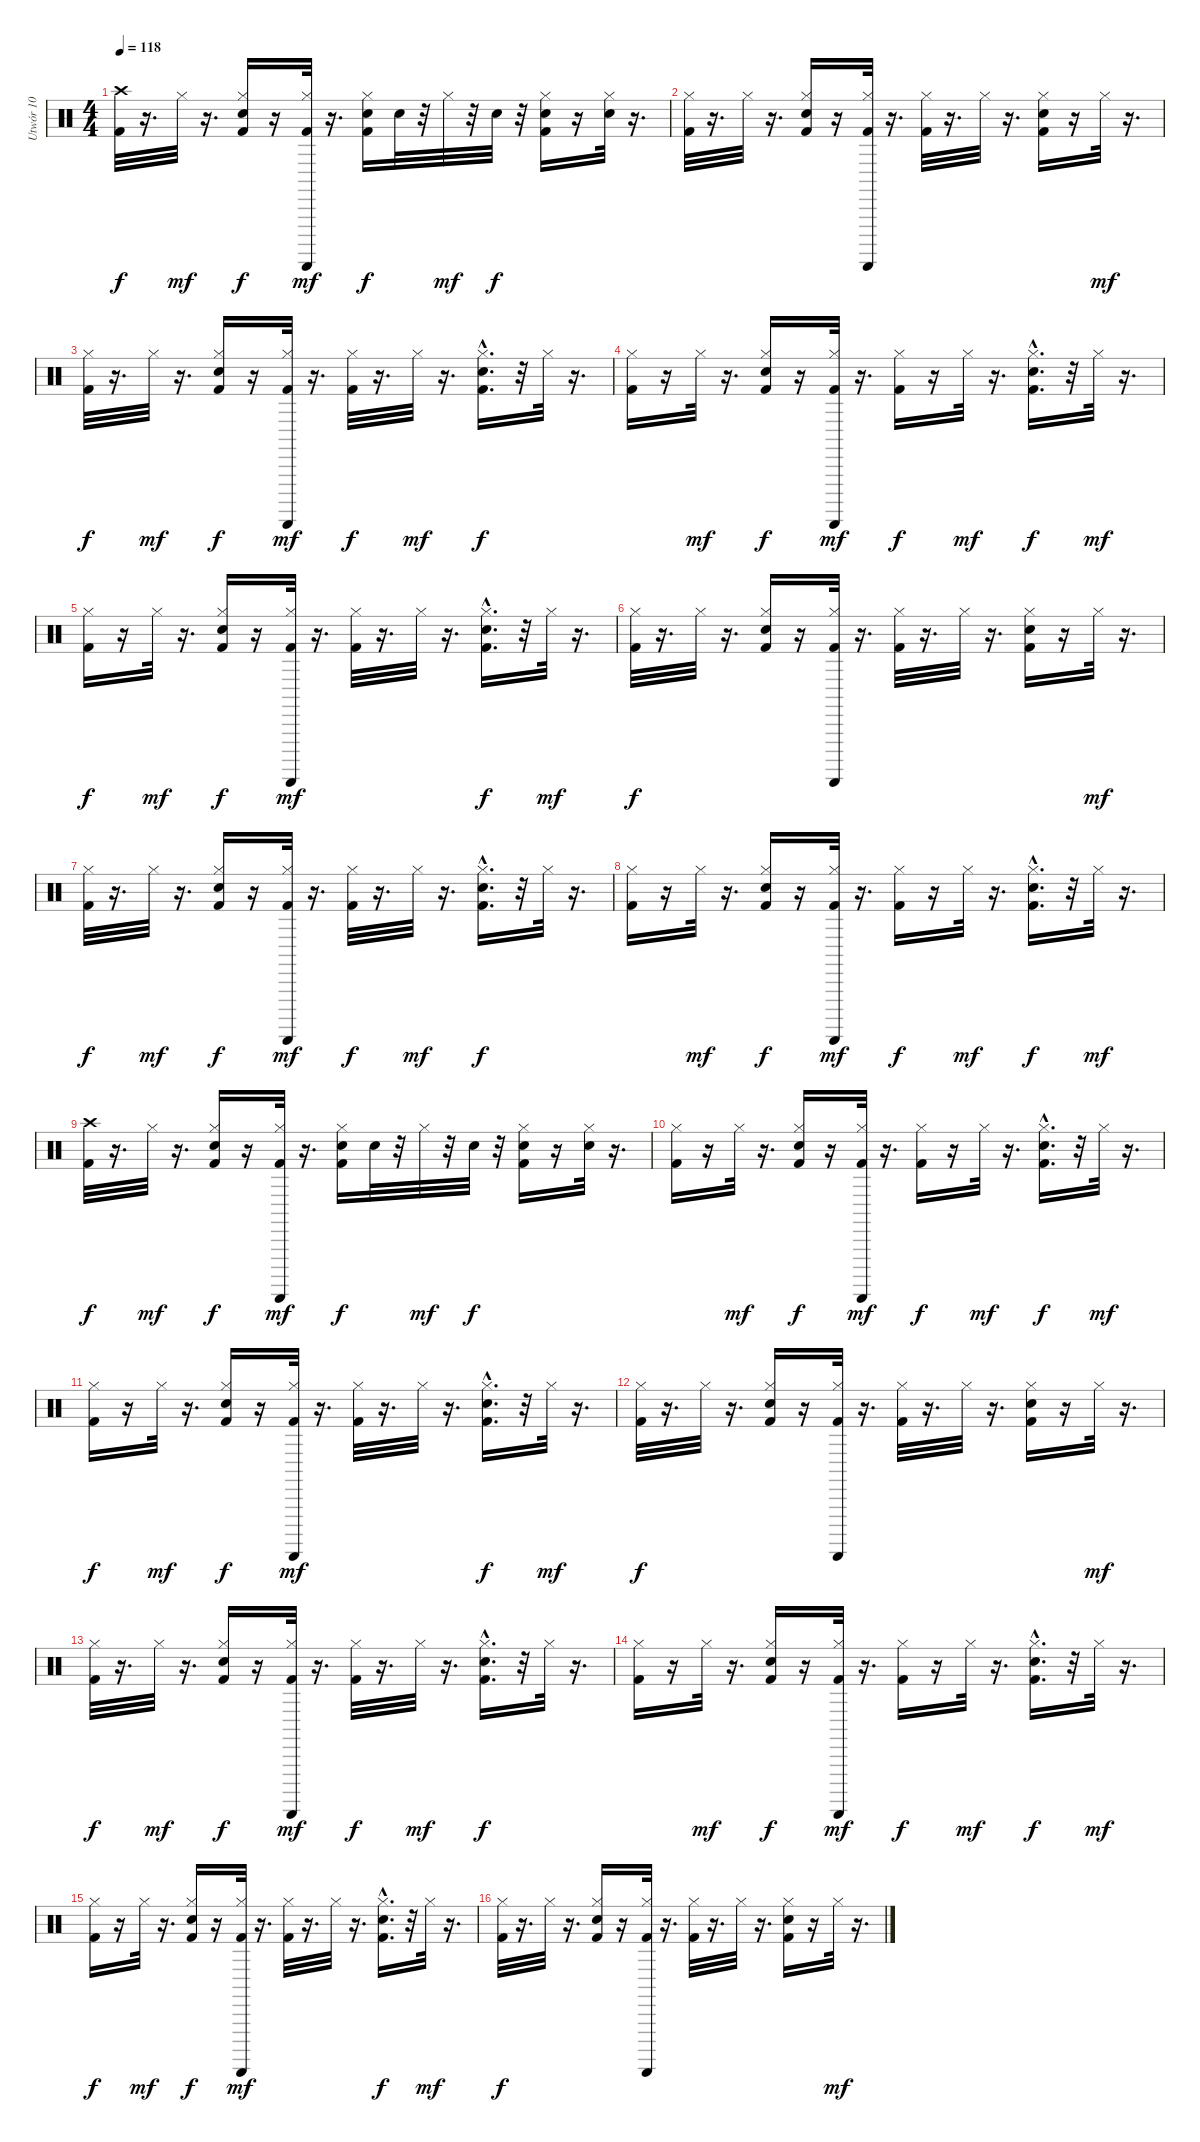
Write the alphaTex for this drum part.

\track ("Utwór 10" "Utwór 10") {instrument percussion}
\staff {score}
\articulation defaults
\ts (4 4)
\tempo 118
\clef neutral
\ks c
("Kick (hit) 2" "Crash high (hit)").32{dy f} r.16{d} "Hi-Hat (closed)".32{dy mf} r.16{d} ("Kick (hit) 2" "Snare (hit) 2" "Hi-Hat (closed)").16{dy f} r.16 ("Kick (hit) 2" "Hi-Hat (closed)" "Guiro (scrap-return)").32{dy mf} r.16{d} ("Kick (hit) 2" "Snare (hit) 2" "Hi-Hat (closed)").16{dy f} "Snare (hit) 2".32 r.32 "Hi-Hat (closed)".32{dy mf} r.32 "Snare (hit) 2".32{dy f} r.32 ("Kick (hit) 2" "Snare (hit) 2" "Hi-Hat (closed)").16 r.16 ("Snare (hit) 2" "Hi-Hat (closed)").32 r.16{d} |
("Kick (hit) 2" "Hi-Hat (closed)").32 r.16{d} "Hi-Hat (closed)".32 r.16{d} ("Kick (hit) 2" "Snare (hit) 2" "Hi-Hat (closed)").16 r.16 ("Kick (hit) 2" "Hi-Hat (closed)" "Guiro (scrap-return)").32 r.16{d} ("Kick (hit) 2" "Hi-Hat (closed)").32 r.16{d} "Hi-Hat (closed)".32 r.16{d} ("Kick (hit) 2" "Snare (hit) 2" "Hi-Hat (closed)").16 r.16 "Hi-Hat (closed)".32{dy mf} r.16{d} |
("Kick (hit) 2" "Hi-Hat (closed)").32{dy f} r.16{d} "Hi-Hat (closed)".32{dy mf} r.16{d} ("Kick (hit) 2" "Snare (hit) 2" "Hi-Hat (closed)").16{dy f} r.16 ("Kick (hit) 2" "Hi-Hat (closed)" "Guiro (scrap-return)").32{dy mf} r.16{d} ("Kick (hit) 2" "Hi-Hat (closed)").32{dy f} r.16{d} "Hi-Hat (closed)".32{dy mf} r.16{d} ("Kick (hit) 2" "Snare (hit) 2"{hac} "Hi-Hat (closed)").16{d dy f} r.32 "Hi-Hat (closed)".32 r.16{d} |
("Kick (hit) 2" "Hi-Hat (closed)").16 r.16 "Hi-Hat (closed)".32{dy mf} r.16{d} ("Kick (hit) 2" "Snare (hit) 2" "Hi-Hat (closed)").16{dy f} r.16 ("Kick (hit) 2" "Hi-Hat (closed)" "Guiro (scrap-return)").32{dy mf} r.16{d} ("Kick (hit) 2" "Hi-Hat (closed)").16{dy f} r.16 "Hi-Hat (closed)".32{dy mf} r.16{d} ("Kick (hit) 2" "Snare (hit) 2"{hac} "Hi-Hat (closed)").16{d dy f} r.32 "Hi-Hat (closed)".32{dy mf} r.16{d} |
("Kick (hit) 2" "Hi-Hat (closed)").16{dy f} r.16 "Hi-Hat (closed)".32{dy mf} r.16{d} ("Kick (hit) 2" "Snare (hit) 2" "Hi-Hat (closed)").16{dy f} r.16 ("Kick (hit) 2" "Hi-Hat (closed)" "Guiro (scrap-return)").32{dy mf} r.16{d} ("Kick (hit) 2" "Hi-Hat (closed)").32 r.16{d} "Hi-Hat (closed)".32 r.16{d} ("Kick (hit) 2" "Snare (hit) 2"{hac} "Hi-Hat (closed)").16{d dy f} r.32 "Hi-Hat (closed)".32{dy mf} r.16{d} |
("Kick (hit) 2" "Hi-Hat (closed)").32{dy f} r.16{d} "Hi-Hat (closed)".32 r.16{d} ("Kick (hit) 2" "Snare (hit) 2" "Hi-Hat (closed)").16 r.16 ("Kick (hit) 2" "Hi-Hat (closed)" "Guiro (scrap-return)").32 r.16{d} ("Kick (hit) 2" "Hi-Hat (closed)").32 r.16{d} "Hi-Hat (closed)".32 r.16{d} ("Kick (hit) 2" "Snare (hit) 2" "Hi-Hat (closed)").16 r.16 "Hi-Hat (closed)".32{dy mf} r.16{d} |
("Kick (hit) 2" "Hi-Hat (closed)").32{dy f} r.16{d} "Hi-Hat (closed)".32{dy mf} r.16{d} ("Kick (hit) 2" "Snare (hit) 2" "Hi-Hat (closed)").16{dy f} r.16 ("Kick (hit) 2" "Hi-Hat (closed)" "Guiro (scrap-return)").32{dy mf} r.16{d} ("Kick (hit) 2" "Hi-Hat (closed)").32{dy f} r.16{d} "Hi-Hat (closed)".32{dy mf} r.16{d} ("Kick (hit) 2" "Snare (hit) 2"{hac} "Hi-Hat (closed)").16{d dy f} r.32 "Hi-Hat (closed)".32 r.16{d} |
("Kick (hit) 2" "Hi-Hat (closed)").16 r.16 "Hi-Hat (closed)".32{dy mf} r.16{d} ("Kick (hit) 2" "Snare (hit) 2" "Hi-Hat (closed)").16{dy f} r.16 ("Kick (hit) 2" "Hi-Hat (closed)" "Guiro (scrap-return)").32{dy mf} r.16{d} ("Kick (hit) 2" "Hi-Hat (closed)").16{dy f} r.16 "Hi-Hat (closed)".32{dy mf} r.16{d} ("Kick (hit) 2" "Snare (hit) 2"{hac} "Hi-Hat (closed)").16{d dy f} r.32 "Hi-Hat (closed)".32{dy mf} r.16{d} |
("Kick (hit) 2" "Crash high (hit)").32{dy f} r.16{d} "Hi-Hat (closed)".32{dy mf} r.16{d} ("Kick (hit) 2" "Snare (hit) 2" "Hi-Hat (closed)").16{dy f} r.16 ("Kick (hit) 2" "Hi-Hat (closed)" "Guiro (scrap-return)").32{dy mf} r.16{d} ("Kick (hit) 2" "Snare (hit) 2" "Hi-Hat (closed)").16{dy f} "Snare (hit) 2".32 r.32 "Hi-Hat (closed)".32{dy mf} r.32 "Snare (hit) 2".32{dy f} r.32 ("Kick (hit) 2" "Snare (hit) 2" "Hi-Hat (closed)").16 r.16 ("Snare (hit) 2" "Hi-Hat (closed)").32 r.16{d} |
("Kick (hit) 2" "Hi-Hat (closed)").16 r.16 "Hi-Hat (closed)".32{dy mf} r.16{d} ("Kick (hit) 2" "Snare (hit) 2" "Hi-Hat (closed)").16{dy f} r.16 ("Kick (hit) 2" "Hi-Hat (closed)" "Guiro (scrap-return)").32{dy mf} r.16{d} ("Kick (hit) 2" "Hi-Hat (closed)").16{dy f} r.16 "Hi-Hat (closed)".32{dy mf} r.16{d} ("Kick (hit) 2" "Snare (hit) 2"{hac} "Hi-Hat (closed)").16{d dy f} r.32 "Hi-Hat (closed)".32{dy mf} r.16{d} |
("Kick (hit) 2" "Hi-Hat (closed)").16{dy f} r.16 "Hi-Hat (closed)".32{dy mf} r.16{d} ("Kick (hit) 2" "Snare (hit) 2" "Hi-Hat (closed)").16{dy f} r.16 ("Kick (hit) 2" "Hi-Hat (closed)" "Guiro (scrap-return)").32{dy mf} r.16{d} ("Kick (hit) 2" "Hi-Hat (closed)").32 r.16{d} "Hi-Hat (closed)".32 r.16{d} ("Kick (hit) 2" "Snare (hit) 2"{hac} "Hi-Hat (closed)").16{d dy f} r.32 "Hi-Hat (closed)".32{dy mf} r.16{d} |
("Kick (hit) 2" "Hi-Hat (closed)").32{dy f} r.16{d} "Hi-Hat (closed)".32 r.16{d} ("Kick (hit) 2" "Snare (hit) 2" "Hi-Hat (closed)").16 r.16 ("Kick (hit) 2" "Hi-Hat (closed)" "Guiro (scrap-return)").32 r.16{d} ("Kick (hit) 2" "Hi-Hat (closed)").32 r.16{d} "Hi-Hat (closed)".32 r.16{d} ("Kick (hit) 2" "Snare (hit) 2" "Hi-Hat (closed)").16 r.16 "Hi-Hat (closed)".32{dy mf} r.16{d} |
("Kick (hit) 2" "Hi-Hat (closed)").32{dy f} r.16{d} "Hi-Hat (closed)".32{dy mf} r.16{d} ("Kick (hit) 2" "Snare (hit) 2" "Hi-Hat (closed)").16{dy f} r.16 ("Kick (hit) 2" "Hi-Hat (closed)" "Guiro (scrap-return)").32{dy mf} r.16{d} ("Kick (hit) 2" "Hi-Hat (closed)").32{dy f} r.16{d} "Hi-Hat (closed)".32{dy mf} r.16{d} ("Kick (hit) 2" "Snare (hit) 2"{hac} "Hi-Hat (closed)").16{d dy f} r.32 "Hi-Hat (closed)".32 r.16{d} |
("Kick (hit) 2" "Hi-Hat (closed)").16 r.16 "Hi-Hat (closed)".32{dy mf} r.16{d} ("Kick (hit) 2" "Snare (hit) 2" "Hi-Hat (closed)").16{dy f} r.16 ("Kick (hit) 2" "Hi-Hat (closed)" "Guiro (scrap-return)").32{dy mf} r.16{d} ("Kick (hit) 2" "Hi-Hat (closed)").16{dy f} r.16 "Hi-Hat (closed)".32{dy mf} r.16{d} ("Kick (hit) 2" "Snare (hit) 2"{hac} "Hi-Hat (closed)").16{d dy f} r.32 "Hi-Hat (closed)".32{dy mf} r.16{d} |
("Kick (hit) 2" "Hi-Hat (closed)").16{dy f} r.16 "Hi-Hat (closed)".32{dy mf} r.16{d} ("Kick (hit) 2" "Snare (hit) 2" "Hi-Hat (closed)").16{dy f} r.16 ("Kick (hit) 2" "Hi-Hat (closed)" "Guiro (scrap-return)").32{dy mf} r.16{d} ("Kick (hit) 2" "Hi-Hat (closed)").32 r.16{d} "Hi-Hat (closed)".32 r.16{d} ("Kick (hit) 2" "Snare (hit) 2"{hac} "Hi-Hat (closed)").16{d dy f} r.32 "Hi-Hat (closed)".32{dy mf} r.16{d} |
("Kick (hit) 2" "Hi-Hat (closed)").32{dy f} r.16{d} "Hi-Hat (closed)".32 r.16{d} ("Kick (hit) 2" "Snare (hit) 2" "Hi-Hat (closed)").16 r.16 ("Kick (hit) 2" "Hi-Hat (closed)" "Guiro (scrap-return)").32 r.16{d} ("Kick (hit) 2" "Hi-Hat (closed)").32 r.16{d} "Hi-Hat (closed)".32 r.16{d} ("Kick (hit) 2" "Snare (hit) 2" "Hi-Hat (closed)").16 r.16 "Hi-Hat (closed)".32{dy mf} r.16{d}
